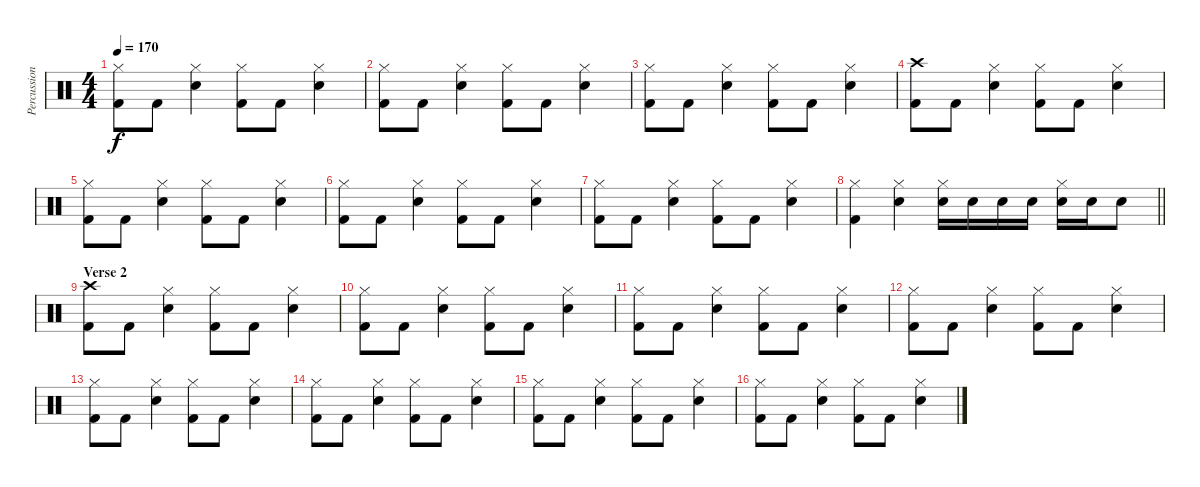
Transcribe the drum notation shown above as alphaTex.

\track ("Percussion" "Percussion") {instrument percussion}
\staff {score}
\articulation defaults
\ts (4 4)
\tempo 170
\clef neutral
\ks c
("Hi-Hat (closed)" "Kick (hit) 2").8{dy f} "Kick (hit) 2".8 ("Hi-Hat (closed)" "Electric Snare (hit)").4 ("Hi-Hat (closed)" "Kick (hit) 2").8 "Kick (hit) 2".8 ("Hi-Hat (closed)" "Electric Snare (hit)").4 |
("Hi-Hat (closed)" "Kick (hit) 2").8 "Kick (hit) 2".8 ("Hi-Hat (closed)" "Electric Snare (hit)").4 ("Hi-Hat (closed)" "Kick (hit) 2").8 "Kick (hit) 2".8 ("Hi-Hat (closed)" "Electric Snare (hit)").4 |
("Hi-Hat (closed)" "Kick (hit) 2").8 "Kick (hit) 2".8 ("Hi-Hat (closed)" "Electric Snare (hit)").4 ("Hi-Hat (closed)" "Kick (hit) 2").8 "Kick (hit) 2".8 ("Hi-Hat (closed)" "Electric Snare (hit)").4 |
("Crash high (hit)" "Kick (hit) 2").8 "Kick (hit) 2".8 ("Hi-Hat (closed)" "Electric Snare (hit)").4 ("Hi-Hat (closed)" "Kick (hit) 2").8 "Kick (hit) 2".8 ("Hi-Hat (closed)" "Electric Snare (hit)").4 |
("Hi-Hat (closed)" "Kick (hit) 2").8 "Kick (hit) 2".8 ("Hi-Hat (closed)" "Electric Snare (hit)").4 ("Hi-Hat (closed)" "Kick (hit) 2").8 "Kick (hit) 2".8 ("Hi-Hat (closed)" "Electric Snare (hit)").4 |
("Hi-Hat (closed)" "Kick (hit) 2").8 "Kick (hit) 2".8 ("Hi-Hat (closed)" "Electric Snare (hit)").4 ("Hi-Hat (closed)" "Kick (hit) 2").8 "Kick (hit) 2".8 ("Hi-Hat (closed)" "Electric Snare (hit)").4 |
("Hi-Hat (closed)" "Kick (hit) 2").8 "Kick (hit) 2".8 ("Hi-Hat (closed)" "Electric Snare (hit)").4 ("Hi-Hat (closed)" "Kick (hit) 2").8 "Kick (hit) 2".8 ("Hi-Hat (closed)" "Electric Snare (hit)").4 |
\barLineRight lightlight
("Hi-Hat (closed)" "Kick (hit) 2").4 ("Hi-Hat (closed)" "Electric Snare (hit)").4 ("Hi-Hat (closed)" "Electric Snare (hit)").16 "Electric Snare (hit)".16 "Electric Snare (hit)".16 "Electric Snare (hit)".16 ("Hi-Hat (closed)" "Electric Snare (hit)").16 "Electric Snare (hit)".16 "Electric Snare (hit)".8 |
\section ("" "Verse 2")
("Crash high (hit)" "Kick (hit) 2").8 "Kick (hit) 2".8 ("Hi-Hat (closed)" "Electric Snare (hit)").4 ("Hi-Hat (closed)" "Kick (hit) 2").8 "Kick (hit) 2".8 ("Hi-Hat (closed)" "Electric Snare (hit)").4 |
("Hi-Hat (closed)" "Kick (hit) 2").8 "Kick (hit) 2".8 ("Hi-Hat (closed)" "Electric Snare (hit)").4 ("Hi-Hat (closed)" "Kick (hit) 2").8 "Kick (hit) 2".8 ("Hi-Hat (closed)" "Electric Snare (hit)").4 |
("Hi-Hat (closed)" "Kick (hit) 2").8 "Kick (hit) 2".8 ("Hi-Hat (closed)" "Electric Snare (hit)").4 ("Hi-Hat (closed)" "Kick (hit) 2").8 "Kick (hit) 2".8 ("Hi-Hat (closed)" "Electric Snare (hit)").4 |
("Hi-Hat (closed)" "Kick (hit) 2").8 "Kick (hit) 2".8 ("Hi-Hat (closed)" "Electric Snare (hit)").4 ("Hi-Hat (closed)" "Kick (hit) 2").8 "Kick (hit) 2".8 ("Hi-Hat (closed)" "Electric Snare (hit)").4 |
("Hi-Hat (closed)" "Kick (hit) 2").8 "Kick (hit) 2".8 ("Hi-Hat (closed)" "Electric Snare (hit)").4 ("Hi-Hat (closed)" "Kick (hit) 2").8 "Kick (hit) 2".8 ("Hi-Hat (closed)" "Electric Snare (hit)").4 |
("Hi-Hat (closed)" "Kick (hit) 2").8 "Kick (hit) 2".8 ("Hi-Hat (closed)" "Electric Snare (hit)").4 ("Hi-Hat (closed)" "Kick (hit) 2").8 "Kick (hit) 2".8 ("Hi-Hat (closed)" "Electric Snare (hit)").4 |
("Hi-Hat (closed)" "Kick (hit) 2").8 "Kick (hit) 2".8 ("Hi-Hat (closed)" "Electric Snare (hit)").4 ("Hi-Hat (closed)" "Kick (hit) 2").8 "Kick (hit) 2".8 ("Hi-Hat (closed)" "Electric Snare (hit)").4 |
("Hi-Hat (closed)" "Kick (hit) 2").8 "Kick (hit) 2".8 ("Hi-Hat (closed)" "Electric Snare (hit)").4 ("Hi-Hat (closed)" "Kick (hit) 2").8 "Kick (hit) 2".8 ("Hi-Hat (closed)" "Electric Snare (hit)").4
